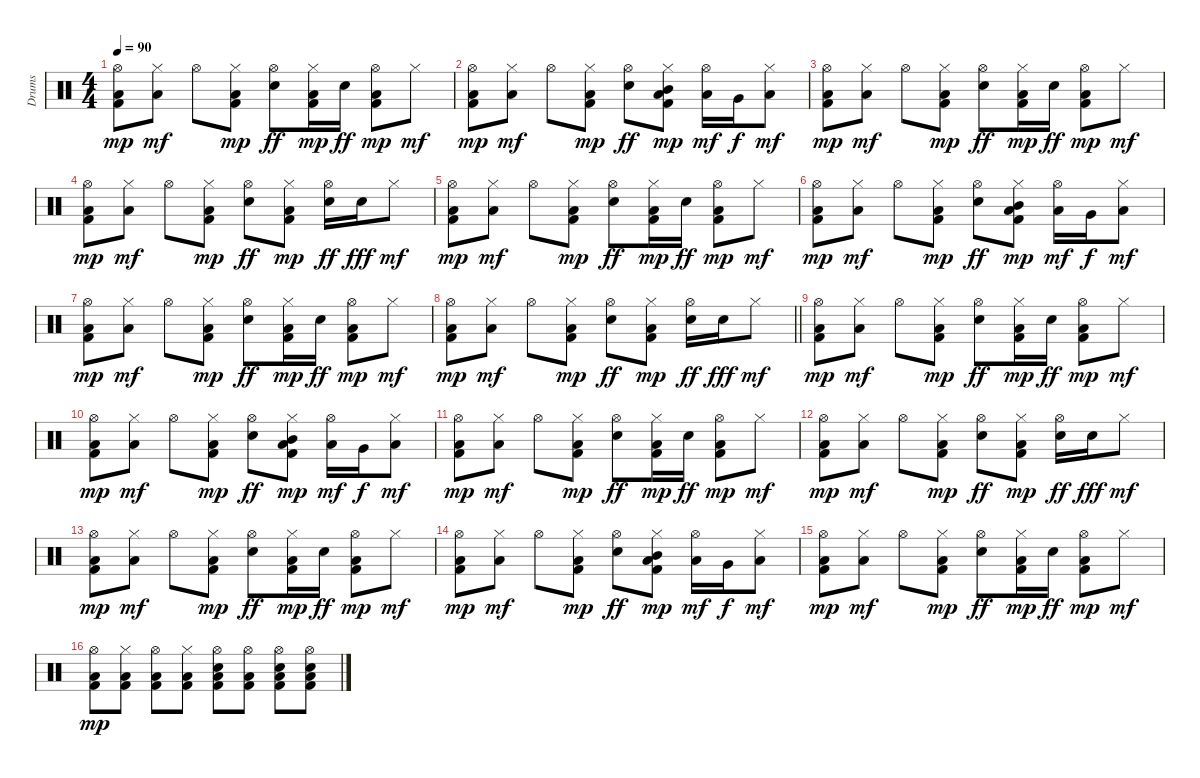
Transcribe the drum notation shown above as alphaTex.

\track ("Drums" "Drums") {instrument percussion}
\staff {score}
\articulation defaults
\ts (4 4)
\section ("" "")
\tempo 90
\clef neutral
\ks c
("Hi-Hat (open)" "Kick (hit) 2" "Low Floor Tom (hit)").8{dy mp} ("Hi-Hat (closed)" "Low Tom (hit)").8{dy mf} "Hi-Hat (open)".8 ("Hi-Hat (closed)" "Kick (hit) 2" "Low Floor Tom (hit)").8{dy mp} ("Hi-Hat (open)" "Snare (hit) 2").8{dy ff} ("Hi-Hat (closed)" "Kick (hit) 2" "Low Floor Tom (hit)").16{dy mp} "Snare (hit) 2".16{dy ff} ("Hi-Hat (open)" "Kick (hit) 2" "Low Floor Tom (hit)").8{dy mp} "Hi-Hat (closed)".8{dy mf} |
("Hi-Hat (open)" "Kick (hit) 2" "Low Floor Tom (hit)").8{dy mp} ("Hi-Hat (closed)" "Low Tom (hit)").8{dy mf} "Hi-Hat (open)".8 ("Hi-Hat (closed)" "Kick (hit) 2" "Low Floor Tom (hit)").8{dy mp} ("Hi-Hat (open)" "Snare (hit) 2").8{dy ff} ("Hi-Hat (closed)" "Mid Tom (hit)" "Kick (hit) 2" "Low Floor Tom (hit)").8{dy mp} ("Hi-Hat (open)" "Low Tom (hit)").16{dy mf} "Very Low Tom (hit)".16{dy f} ("Hi-Hat (closed)" "Low Floor Tom (hit)").8{dy mf} |
("Hi-Hat (open)" "Kick (hit) 2" "Low Floor Tom (hit)").8{dy mp} ("Hi-Hat (closed)" "Low Tom (hit)").8{dy mf} "Hi-Hat (open)".8 ("Hi-Hat (closed)" "Kick (hit) 2" "Low Floor Tom (hit)").8{dy mp} ("Hi-Hat (open)" "Snare (hit) 2").8{dy ff} ("Hi-Hat (closed)" "Kick (hit) 2" "Low Floor Tom (hit)").16{dy mp} "Snare (hit) 2".16{dy ff} ("Hi-Hat (open)" "Kick (hit) 2" "Low Floor Tom (hit)").8{dy mp} "Hi-Hat (closed)".8{dy mf} |
("Hi-Hat (open)" "Kick (hit) 2" "Low Floor Tom (hit)").8{dy mp} ("Hi-Hat (closed)" "Low Tom (hit)").8{dy mf} "Hi-Hat (open)".8 ("Hi-Hat (closed)" "Kick (hit) 2" "Low Floor Tom (hit)").8{dy mp} ("Hi-Hat (open)" "Snare (hit) 2").8{dy ff} ("Hi-Hat (closed)" "Kick (hit) 2" "Low Floor Tom (hit)").8{dy mp} ("Hi-Hat (open)" "Snare (hit) 2").16{dy ff} "Snare (hit) 2".16{dy fff} "Hi-Hat (closed)".8{dy mf} |
("Hi-Hat (open)" "Kick (hit) 2" "Low Floor Tom (hit)").8{dy mp} ("Hi-Hat (closed)" "Low Tom (hit)").8{dy mf} "Hi-Hat (open)".8 ("Hi-Hat (closed)" "Kick (hit) 2" "Low Floor Tom (hit)").8{dy mp} ("Hi-Hat (open)" "Snare (hit) 2").8{dy ff} ("Hi-Hat (closed)" "Kick (hit) 2" "Low Floor Tom (hit)").16{dy mp} "Snare (hit) 2".16{dy ff} ("Hi-Hat (open)" "Kick (hit) 2" "Low Floor Tom (hit)").8{dy mp} "Hi-Hat (closed)".8{dy mf} |
("Hi-Hat (open)" "Kick (hit) 2" "Low Floor Tom (hit)").8{dy mp} ("Hi-Hat (closed)" "Low Tom (hit)").8{dy mf} "Hi-Hat (open)".8 ("Hi-Hat (closed)" "Kick (hit) 2" "Low Floor Tom (hit)").8{dy mp} ("Hi-Hat (open)" "Snare (hit) 2").8{dy ff} ("Hi-Hat (closed)" "Mid Tom (hit)" "Kick (hit) 2" "Low Floor Tom (hit)").8{dy mp} ("Hi-Hat (open)" "Low Tom (hit)").16{dy mf} "Very Low Tom (hit)".16{dy f} ("Hi-Hat (closed)" "Low Floor Tom (hit)").8{dy mf} |
("Hi-Hat (open)" "Kick (hit) 2" "Low Floor Tom (hit)").8{dy mp} ("Hi-Hat (closed)" "Low Tom (hit)").8{dy mf} "Hi-Hat (open)".8 ("Hi-Hat (closed)" "Kick (hit) 2" "Low Floor Tom (hit)").8{dy mp} ("Hi-Hat (open)" "Snare (hit) 2").8{dy ff} ("Hi-Hat (closed)" "Kick (hit) 2" "Low Floor Tom (hit)").16{dy mp} "Snare (hit) 2".16{dy ff} ("Hi-Hat (open)" "Kick (hit) 2" "Low Floor Tom (hit)").8{dy mp} "Hi-Hat (closed)".8{dy mf} |
\barLineRight lightlight
("Hi-Hat (open)" "Kick (hit) 2" "Low Floor Tom (hit)").8{dy mp} ("Hi-Hat (closed)" "Low Tom (hit)").8{dy mf} "Hi-Hat (open)".8 ("Hi-Hat (closed)" "Kick (hit) 2" "Low Floor Tom (hit)").8{dy mp} ("Hi-Hat (open)" "Snare (hit) 2").8{dy ff} ("Hi-Hat (closed)" "Kick (hit) 2" "Low Floor Tom (hit)").8{dy mp} ("Hi-Hat (open)" "Snare (hit) 2").16{dy ff} "Snare (hit) 2".16{dy fff} "Hi-Hat (closed)".8{dy mf} |
\section ("" "")
("Hi-Hat (open)" "Kick (hit) 2" "Low Floor Tom (hit)").8{dy mp} ("Hi-Hat (closed)" "Low Tom (hit)").8{dy mf} "Hi-Hat (open)".8 ("Hi-Hat (closed)" "Kick (hit) 2" "Low Floor Tom (hit)").8{dy mp} ("Hi-Hat (open)" "Snare (hit) 2").8{dy ff} ("Hi-Hat (closed)" "Kick (hit) 2" "Low Floor Tom (hit)").16{dy mp} "Snare (hit) 2".16{dy ff} ("Hi-Hat (open)" "Kick (hit) 2" "Low Floor Tom (hit)").8{dy mp} "Hi-Hat (closed)".8{dy mf} |
("Hi-Hat (open)" "Kick (hit) 2" "Low Floor Tom (hit)").8{dy mp} ("Hi-Hat (closed)" "Low Tom (hit)").8{dy mf} "Hi-Hat (open)".8 ("Hi-Hat (closed)" "Kick (hit) 2" "Low Floor Tom (hit)").8{dy mp} ("Hi-Hat (open)" "Snare (hit) 2").8{dy ff} ("Hi-Hat (closed)" "Mid Tom (hit)" "Kick (hit) 2" "Low Floor Tom (hit)").8{dy mp} ("Hi-Hat (open)" "Low Tom (hit)").16{dy mf} "Very Low Tom (hit)".16{dy f} ("Hi-Hat (closed)" "Low Floor Tom (hit)").8{dy mf} |
("Hi-Hat (open)" "Kick (hit) 2" "Low Floor Tom (hit)").8{dy mp} ("Hi-Hat (closed)" "Low Tom (hit)").8{dy mf} "Hi-Hat (open)".8 ("Hi-Hat (closed)" "Kick (hit) 2" "Low Floor Tom (hit)").8{dy mp} ("Hi-Hat (open)" "Snare (hit) 2").8{dy ff} ("Hi-Hat (closed)" "Kick (hit) 2" "Low Floor Tom (hit)").16{dy mp} "Snare (hit) 2".16{dy ff} ("Hi-Hat (open)" "Kick (hit) 2" "Low Floor Tom (hit)").8{dy mp} "Hi-Hat (closed)".8{dy mf} |
("Hi-Hat (open)" "Kick (hit) 2" "Low Floor Tom (hit)").8{dy mp} ("Hi-Hat (closed)" "Low Tom (hit)").8{dy mf} "Hi-Hat (open)".8 ("Hi-Hat (closed)" "Kick (hit) 2" "Low Floor Tom (hit)").8{dy mp} ("Hi-Hat (open)" "Snare (hit) 2").8{dy ff} ("Hi-Hat (closed)" "Kick (hit) 2" "Low Floor Tom (hit)").8{dy mp} ("Hi-Hat (open)" "Snare (hit) 2").16{dy ff} "Snare (hit) 2".16{dy fff} "Hi-Hat (closed)".8{dy mf} |
("Hi-Hat (open)" "Kick (hit) 2" "Low Floor Tom (hit)").8{dy mp} ("Hi-Hat (closed)" "Low Tom (hit)").8{dy mf} "Hi-Hat (open)".8 ("Hi-Hat (closed)" "Kick (hit) 2" "Low Floor Tom (hit)").8{dy mp} ("Hi-Hat (open)" "Snare (hit) 2").8{dy ff} ("Hi-Hat (closed)" "Kick (hit) 2" "Low Floor Tom (hit)").16{dy mp} "Snare (hit) 2".16{dy ff} ("Hi-Hat (open)" "Kick (hit) 2" "Low Floor Tom (hit)").8{dy mp} "Hi-Hat (closed)".8{dy mf} |
("Hi-Hat (open)" "Kick (hit) 2" "Low Floor Tom (hit)").8{dy mp} ("Hi-Hat (closed)" "Low Tom (hit)").8{dy mf} "Hi-Hat (open)".8 ("Hi-Hat (closed)" "Kick (hit) 2" "Low Floor Tom (hit)").8{dy mp} ("Hi-Hat (open)" "Snare (hit) 2").8{dy ff} ("Hi-Hat (closed)" "Mid Tom (hit)" "Kick (hit) 2" "Low Floor Tom (hit)").8{dy mp} ("Hi-Hat (open)" "Low Tom (hit)").16{dy mf} "Very Low Tom (hit)".16{dy f} ("Hi-Hat (closed)" "Low Floor Tom (hit)").8{dy mf} |
("Hi-Hat (open)" "Kick (hit) 2" "Low Floor Tom (hit)").8{dy mp} ("Hi-Hat (closed)" "Low Tom (hit)").8{dy mf} "Hi-Hat (open)".8 ("Hi-Hat (closed)" "Kick (hit) 2" "Low Floor Tom (hit)").8{dy mp} ("Hi-Hat (open)" "Snare (hit) 2").8{dy ff} ("Hi-Hat (closed)" "Kick (hit) 2" "Low Floor Tom (hit)").16{dy mp} "Snare (hit) 2".16{dy ff} ("Hi-Hat (open)" "Kick (hit) 2" "Low Floor Tom (hit)").8{dy mp} "Hi-Hat (closed)".8{dy mf} |
("Hi-Hat (open)" "Kick (hit) 2" "Low Floor Tom (hit)").8{dy mp} ("Hi-Hat (closed)" "Kick (hit) 2" "Low Floor Tom (hit)").8 ("Hi-Hat (open)" "Kick (hit) 2" "Low Floor Tom (hit)").8 ("Hi-Hat (closed)" "Kick (hit) 2" "Low Floor Tom (hit)").8 ("Hi-Hat (open)" "Snare (hit) 2" "Kick (hit) 2" "Low Floor Tom (hit)").8 ("Hi-Hat (open)" "Kick (hit) 2" "Low Floor Tom (hit)").8 ("Hi-Hat (open)" "Snare (hit) 2" "Kick (hit) 2" "Low Floor Tom (hit)").8 ("Hi-Hat (open)" "Snare (hit) 2" "Kick (hit) 2" "Low Floor Tom (hit)").8
